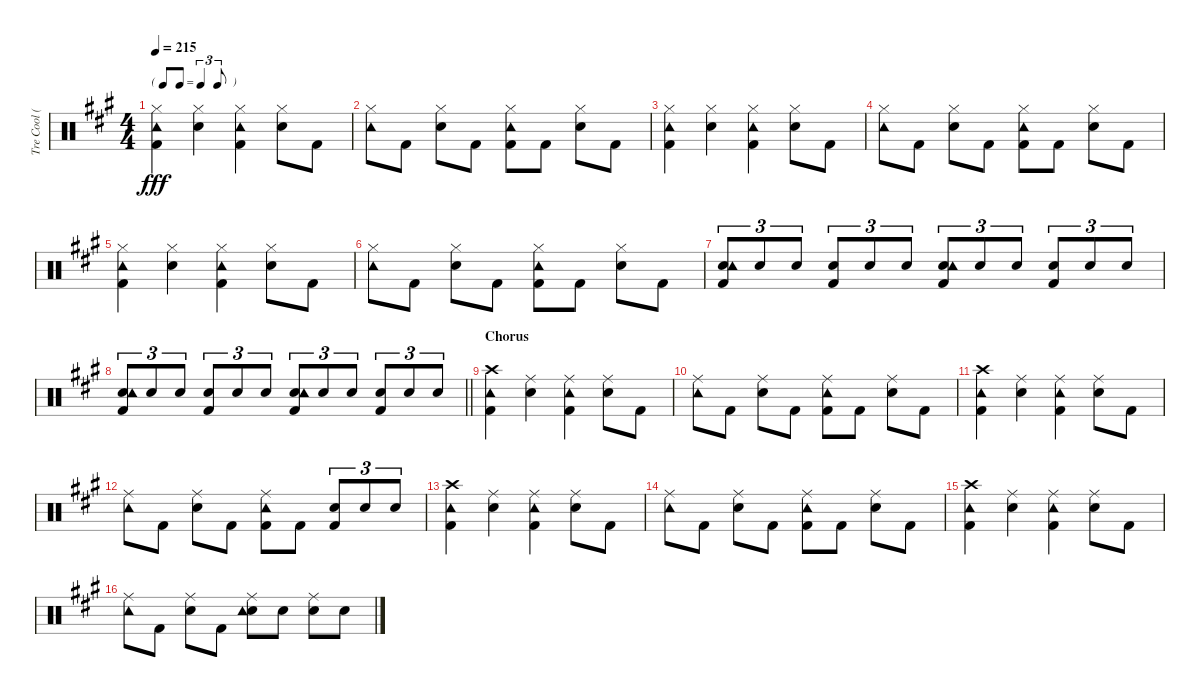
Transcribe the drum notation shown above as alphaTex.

\track ("Tre Cool (Drums)" "Tre Cool (") {instrument percussion}
\staff {score}
\articulation defaults
\ts (4 4)
\tf triplet8th
\tempo 215
\clef neutral
\ks a
("Hi-Hat (closed)" "Kick (hit) 2" "Tambourine (hit)").4{dy fff} ("Hi-Hat (closed)" "Electric Snare (hit)").4 ("Hi-Hat (closed)" "Kick (hit) 2" "Tambourine (hit)").4 ("Hi-Hat (closed)" "Electric Snare (hit)").8 "Kick (hit) 2".8 |
("Hi-Hat (closed)" "Tambourine (hit)").8 "Kick (hit) 2".8 ("Hi-Hat (closed)" "Electric Snare (hit)").8 "Kick (hit) 2".8 ("Hi-Hat (closed)" "Kick (hit) 2" "Tambourine (hit)").8 "Kick (hit) 2".8 ("Hi-Hat (closed)" "Electric Snare (hit)").8 "Kick (hit) 2".8 |
("Hi-Hat (closed)" "Kick (hit) 2" "Tambourine (hit)").4 ("Hi-Hat (closed)" "Electric Snare (hit)").4 ("Hi-Hat (closed)" "Kick (hit) 2" "Tambourine (hit)").4 ("Hi-Hat (closed)" "Electric Snare (hit)").8 "Kick (hit) 2".8 |
("Hi-Hat (closed)" "Tambourine (hit)").8 "Kick (hit) 2".8 ("Hi-Hat (closed)" "Electric Snare (hit)").8 "Kick (hit) 2".8 ("Hi-Hat (closed)" "Kick (hit) 2" "Tambourine (hit)").8 "Kick (hit) 2".8 ("Hi-Hat (closed)" "Electric Snare (hit)").8 "Kick (hit) 2".8 |
("Hi-Hat (closed)" "Kick (hit) 2" "Tambourine (hit)").4 ("Hi-Hat (closed)" "Electric Snare (hit)").4 ("Hi-Hat (closed)" "Kick (hit) 2" "Tambourine (hit)").4 ("Hi-Hat (closed)" "Electric Snare (hit)").8 "Kick (hit) 2".8 |
("Hi-Hat (closed)" "Tambourine (hit)").8 "Kick (hit) 2".8 ("Hi-Hat (closed)" "Electric Snare (hit)").8 "Kick (hit) 2".8 ("Hi-Hat (closed)" "Kick (hit) 2" "Tambourine (hit)").8 "Kick (hit) 2".8 ("Hi-Hat (closed)" "Electric Snare (hit)").8 "Kick (hit) 2".8 |
("Electric Snare (hit)" "Tambourine (hit)" "Kick (hit) 2").8{tu (3 2)} "Electric Snare (hit)".8{tu (3 2)} "Electric Snare (hit)".8{tu (3 2)} ("Electric Snare (hit)" "Kick (hit) 2").8{tu (3 2)} "Electric Snare (hit)".8{tu (3 2)} "Electric Snare (hit)".8{tu (3 2)} ("Electric Snare (hit)" "Tambourine (hit)" "Kick (hit) 2").8{tu (3 2)} "Electric Snare (hit)".8{tu (3 2)} "Electric Snare (hit)".8{tu (3 2)} ("Electric Snare (hit)" "Kick (hit) 2").8{tu (3 2)} "Electric Snare (hit)".8{tu (3 2)} "Electric Snare (hit)".8{tu (3 2)} |
\barLineRight lightlight
("Electric Snare (hit)" "Tambourine (hit)" "Kick (hit) 2").8{tu (3 2)} "Electric Snare (hit)".8{tu (3 2)} "Electric Snare (hit)".8{tu (3 2)} ("Electric Snare (hit)" "Kick (hit) 2").8{tu (3 2)} "Electric Snare (hit)".8{tu (3 2)} "Electric Snare (hit)".8{tu (3 2)} ("Electric Snare (hit)" "Tambourine (hit)" "Kick (hit) 2").8{tu (3 2)} "Electric Snare (hit)".8{tu (3 2)} "Electric Snare (hit)".8{tu (3 2)} ("Electric Snare (hit)" "Kick (hit) 2").8{tu (3 2)} "Electric Snare (hit)".8{tu (3 2)} "Electric Snare (hit)".8{tu (3 2)} |
\section ("" "Chorus")
("Crash high (hit)" "Kick (hit) 2" "Tambourine (hit)").4 ("Ride (middle)" "Electric Snare (hit)").4 ("Ride (middle)" "Kick (hit) 2" "Tambourine (hit)").4 ("Ride (middle)" "Electric Snare (hit)").8 "Kick (hit) 2".8 |
("Ride (middle)" "Tambourine (hit)").8 "Kick (hit) 2".8 ("Ride (middle)" "Electric Snare (hit)").8 "Kick (hit) 2".8 ("Ride (middle)" "Kick (hit) 2" "Tambourine (hit)").8 "Kick (hit) 2".8 ("Ride (middle)" "Electric Snare (hit)").8 "Kick (hit) 2".8 |
("Crash high (hit)" "Kick (hit) 2" "Tambourine (hit)").4 ("Ride (middle)" "Electric Snare (hit)").4 ("Ride (middle)" "Kick (hit) 2" "Tambourine (hit)").4 ("Ride (middle)" "Electric Snare (hit)").8 "Kick (hit) 2".8 |
("Ride (middle)" "Tambourine (hit)").8 "Kick (hit) 2".8 ("Ride (middle)" "Electric Snare (hit)").8 "Kick (hit) 2".8 ("Ride (middle)" "Kick (hit) 2" "Tambourine (hit)").8 "Kick (hit) 2".8 ("Electric Snare (hit)" "Kick (hit) 2").8{tu (3 2)} "Electric Snare (hit)".8{tu (3 2)} "Electric Snare (hit)".8{tu (3 2)} |
("Crash high (hit)" "Kick (hit) 2" "Tambourine (hit)").4 ("Ride (middle)" "Electric Snare (hit)").4 ("Ride (middle)" "Kick (hit) 2" "Tambourine (hit)").4 ("Ride (middle)" "Electric Snare (hit)").8 "Kick (hit) 2".8 |
("Ride (middle)" "Tambourine (hit)").8 "Kick (hit) 2".8 ("Ride (middle)" "Electric Snare (hit)").8 "Kick (hit) 2".8 ("Ride (middle)" "Kick (hit) 2" "Tambourine (hit)").8 "Kick (hit) 2".8 ("Ride (middle)" "Electric Snare (hit)").8 "Kick (hit) 2".8 |
("Crash high (hit)" "Kick (hit) 2" "Tambourine (hit)").4 ("Ride (middle)" "Electric Snare (hit)").4 ("Ride (middle)" "Kick (hit) 2" "Tambourine (hit)").4 ("Ride (middle)" "Electric Snare (hit)").8 "Kick (hit) 2".8 |
("Ride (middle)" "Tambourine (hit)").8 "Kick (hit) 2".8 ("Ride (middle)" "Electric Snare (hit)").8 "Kick (hit) 2".8 ("Ride (middle)" "Electric Snare (hit)" "Tambourine (hit)").8 "Electric Snare (hit)".8 ("Ride (middle)" "Electric Snare (hit)").8 "Electric Snare (hit)".8
